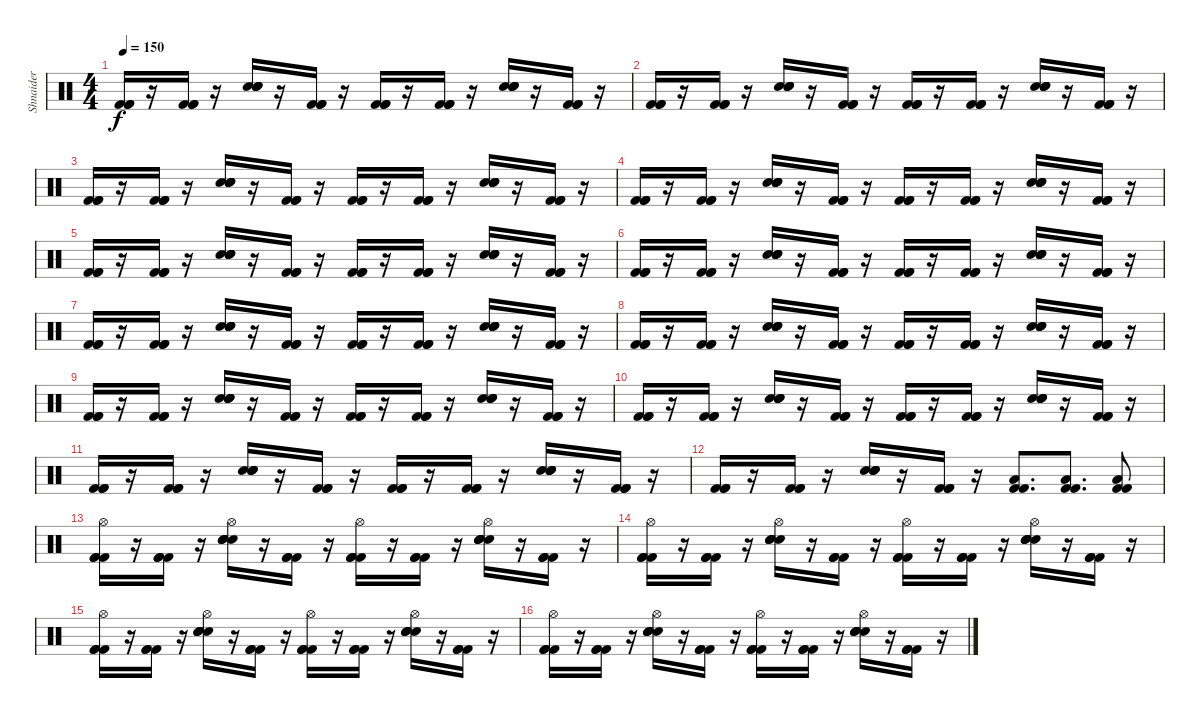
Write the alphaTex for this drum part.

\track ("Shnaider" "Shnaider") {instrument percussion}
\staff {score}
\articulation defaults
\ts (4 4)
\tempo 150
\clef neutral
\ks c
("Kick (hit) 2" "Kick (hit) 2" "Kick (hit) 2").16{dy f} r.16 ("Kick (hit) 2" "Kick (hit) 2" "Kick (hit) 2").16 r.16 ("Electric Snare (hit)" "Electric Snare (hit)" "Electric Snare (hit)" "Electric Snare (hit)").16 r.16 ("Kick (hit) 2" "Kick (hit) 2" "Kick (hit) 2").16 r.16 ("Kick (hit) 2" "Kick (hit) 2" "Kick (hit) 2").16 r.16 ("Kick (hit) 2" "Kick (hit) 2" "Kick (hit) 2").16 r.16 ("Electric Snare (hit)" "Electric Snare (hit)" "Electric Snare (hit)" "Electric Snare (hit)").16 r.16 ("Kick (hit) 2" "Kick (hit) 2" "Kick (hit) 2").16 r.16 |
("Kick (hit) 2" "Kick (hit) 2" "Kick (hit) 2").16 r.16 ("Kick (hit) 2" "Kick (hit) 2" "Kick (hit) 2").16 r.16 ("Electric Snare (hit)" "Electric Snare (hit)" "Electric Snare (hit)" "Electric Snare (hit)").16 r.16 ("Kick (hit) 2" "Kick (hit) 2" "Kick (hit) 2").16 r.16 ("Kick (hit) 2" "Kick (hit) 2" "Kick (hit) 2").16 r.16 ("Kick (hit) 2" "Kick (hit) 2" "Kick (hit) 2").16 r.16 ("Electric Snare (hit)" "Electric Snare (hit)" "Electric Snare (hit)" "Electric Snare (hit)").16 r.16 ("Kick (hit) 2" "Kick (hit) 2" "Kick (hit) 2").16 r.16 |
("Kick (hit) 2" "Kick (hit) 2" "Kick (hit) 2").16 r.16 ("Kick (hit) 2" "Kick (hit) 2" "Kick (hit) 2").16 r.16 ("Electric Snare (hit)" "Electric Snare (hit)" "Electric Snare (hit)" "Electric Snare (hit)").16 r.16 ("Kick (hit) 2" "Kick (hit) 2" "Kick (hit) 2").16 r.16 ("Kick (hit) 2" "Kick (hit) 2" "Kick (hit) 2").16 r.16 ("Kick (hit) 2" "Kick (hit) 2" "Kick (hit) 2").16 r.16 ("Electric Snare (hit)" "Electric Snare (hit)" "Electric Snare (hit)" "Electric Snare (hit)").16 r.16 ("Kick (hit) 2" "Kick (hit) 2" "Kick (hit) 2").16 r.16 |
("Kick (hit) 2" "Kick (hit) 2" "Kick (hit) 2").16 r.16 ("Kick (hit) 2" "Kick (hit) 2" "Kick (hit) 2").16 r.16 ("Electric Snare (hit)" "Electric Snare (hit)" "Electric Snare (hit)" "Electric Snare (hit)").16 r.16 ("Kick (hit) 2" "Kick (hit) 2" "Kick (hit) 2").16 r.16 ("Kick (hit) 2" "Kick (hit) 2" "Kick (hit) 2").16 r.16 ("Kick (hit) 2" "Kick (hit) 2" "Kick (hit) 2").16 r.16 ("Electric Snare (hit)" "Electric Snare (hit)" "Electric Snare (hit)" "Electric Snare (hit)").16 r.16 ("Kick (hit) 2" "Kick (hit) 2" "Kick (hit) 2").16 r.16 |
("Kick (hit) 2" "Kick (hit) 2" "Kick (hit) 2").16 r.16 ("Kick (hit) 2" "Kick (hit) 2" "Kick (hit) 2").16 r.16 ("Electric Snare (hit)" "Electric Snare (hit)" "Electric Snare (hit)" "Electric Snare (hit)").16 r.16 ("Kick (hit) 2" "Kick (hit) 2" "Kick (hit) 2").16 r.16 ("Kick (hit) 2" "Kick (hit) 2" "Kick (hit) 2").16 r.16 ("Kick (hit) 2" "Kick (hit) 2" "Kick (hit) 2").16 r.16 ("Electric Snare (hit)" "Electric Snare (hit)" "Electric Snare (hit)" "Electric Snare (hit)").16 r.16 ("Kick (hit) 2" "Kick (hit) 2" "Kick (hit) 2").16 r.16 |
("Kick (hit) 2" "Kick (hit) 2" "Kick (hit) 2").16 r.16 ("Kick (hit) 2" "Kick (hit) 2" "Kick (hit) 2").16 r.16 ("Electric Snare (hit)" "Electric Snare (hit)" "Electric Snare (hit)" "Electric Snare (hit)").16 r.16 ("Kick (hit) 2" "Kick (hit) 2" "Kick (hit) 2").16 r.16 ("Kick (hit) 2" "Kick (hit) 2" "Kick (hit) 2").16 r.16 ("Kick (hit) 2" "Kick (hit) 2" "Kick (hit) 2").16 r.16 ("Electric Snare (hit)" "Electric Snare (hit)" "Electric Snare (hit)" "Electric Snare (hit)").16 r.16 ("Kick (hit) 2" "Kick (hit) 2" "Kick (hit) 2").16 r.16 |
("Kick (hit) 2" "Kick (hit) 2" "Kick (hit) 2").16 r.16 ("Kick (hit) 2" "Kick (hit) 2" "Kick (hit) 2").16 r.16 ("Electric Snare (hit)" "Electric Snare (hit)" "Electric Snare (hit)" "Electric Snare (hit)").16 r.16 ("Kick (hit) 2" "Kick (hit) 2" "Kick (hit) 2").16 r.16 ("Kick (hit) 2" "Kick (hit) 2" "Kick (hit) 2").16 r.16 ("Kick (hit) 2" "Kick (hit) 2" "Kick (hit) 2").16 r.16 ("Electric Snare (hit)" "Electric Snare (hit)" "Electric Snare (hit)" "Electric Snare (hit)").16 r.16 ("Kick (hit) 2" "Kick (hit) 2" "Kick (hit) 2").16 r.16 |
("Kick (hit) 2" "Kick (hit) 2" "Kick (hit) 2").16 r.16 ("Kick (hit) 2" "Kick (hit) 2" "Kick (hit) 2").16 r.16 ("Electric Snare (hit)" "Electric Snare (hit)" "Electric Snare (hit)" "Electric Snare (hit)").16 r.16 ("Kick (hit) 2" "Kick (hit) 2" "Kick (hit) 2").16 r.16 ("Kick (hit) 2" "Kick (hit) 2" "Kick (hit) 2").16 r.16 ("Kick (hit) 2" "Kick (hit) 2" "Kick (hit) 2").16 r.16 ("Electric Snare (hit)" "Electric Snare (hit)" "Electric Snare (hit)" "Electric Snare (hit)").16 r.16 ("Kick (hit) 2" "Kick (hit) 2" "Kick (hit) 2").16 r.16 |
("Kick (hit) 2" "Kick (hit) 2" "Kick (hit) 2").16 r.16 ("Kick (hit) 2" "Kick (hit) 2" "Kick (hit) 2").16 r.16 ("Electric Snare (hit)" "Electric Snare (hit)" "Electric Snare (hit)" "Electric Snare (hit)").16 r.16 ("Kick (hit) 2" "Kick (hit) 2" "Kick (hit) 2").16 r.16 ("Kick (hit) 2" "Kick (hit) 2" "Kick (hit) 2").16 r.16 ("Kick (hit) 2" "Kick (hit) 2" "Kick (hit) 2").16 r.16 ("Electric Snare (hit)" "Electric Snare (hit)" "Electric Snare (hit)" "Electric Snare (hit)").16 r.16 ("Kick (hit) 2" "Kick (hit) 2" "Kick (hit) 2").16 r.16 |
("Kick (hit) 2" "Kick (hit) 2" "Kick (hit) 2").16 r.16 ("Kick (hit) 2" "Kick (hit) 2" "Kick (hit) 2").16 r.16 ("Electric Snare (hit)" "Electric Snare (hit)" "Electric Snare (hit)" "Electric Snare (hit)").16 r.16 ("Kick (hit) 2" "Kick (hit) 2" "Kick (hit) 2").16 r.16 ("Kick (hit) 2" "Kick (hit) 2" "Kick (hit) 2").16 r.16 ("Kick (hit) 2" "Kick (hit) 2" "Kick (hit) 2").16 r.16 ("Electric Snare (hit)" "Electric Snare (hit)" "Electric Snare (hit)" "Electric Snare (hit)").16 r.16 ("Kick (hit) 2" "Kick (hit) 2" "Kick (hit) 2").16 r.16 |
("Kick (hit) 2" "Kick (hit) 2" "Kick (hit) 2").16 r.16 ("Kick (hit) 2" "Kick (hit) 2" "Kick (hit) 2").16 r.16 ("Electric Snare (hit)" "Electric Snare (hit)" "Electric Snare (hit)" "Electric Snare (hit)").16 r.16 ("Kick (hit) 2" "Kick (hit) 2" "Kick (hit) 2").16 r.16 ("Kick (hit) 2" "Kick (hit) 2" "Kick (hit) 2").16 r.16 ("Kick (hit) 2" "Kick (hit) 2" "Kick (hit) 2").16 r.16 ("Electric Snare (hit)" "Electric Snare (hit)" "Electric Snare (hit)" "Electric Snare (hit)").16 r.16 ("Kick (hit) 2" "Kick (hit) 2" "Kick (hit) 2").16 r.16 |
("Kick (hit) 2" "Kick (hit) 2" "Kick (hit) 2").16 r.16 ("Kick (hit) 2" "Kick (hit) 2" "Kick (hit) 2").16 r.16 ("Electric Snare (hit)" "Electric Snare (hit)" "Electric Snare (hit)" "Electric Snare (hit)").16 r.16 ("Kick (hit) 2" "Kick (hit) 2" "Kick (hit) 2").16 r.16 ("Kick (hit) 2" "Kick (hit) 2" "Low Floor Tom (hit)").8{d} ("Kick (hit) 2" "Kick (hit) 2" "Low Floor Tom (hit)").8{d} ("Kick (hit) 2" "Kick (hit) 2" "Low Floor Tom (hit)").8 |
("Kick (hit) 2" "Kick (hit) 2" "Kick (hit) 2" "Hi-Hat (open)").16 r.16 ("Kick (hit) 2" "Kick (hit) 2" "Kick (hit) 2").16 r.16 ("Electric Snare (hit)" "Electric Snare (hit)" "Electric Snare (hit)" "Electric Snare (hit)" "Hi-Hat (open)").16 r.16 ("Kick (hit) 2" "Kick (hit) 2" "Kick (hit) 2").16 r.16 ("Kick (hit) 2" "Kick (hit) 2" "Kick (hit) 2" "Hi-Hat (open)").16 r.16 ("Kick (hit) 2" "Kick (hit) 2" "Kick (hit) 2").16 r.16 ("Electric Snare (hit)" "Electric Snare (hit)" "Electric Snare (hit)" "Electric Snare (hit)" "Hi-Hat (open)").16 r.16 ("Kick (hit) 2" "Kick (hit) 2" "Kick (hit) 2").16 r.16 |
("Kick (hit) 2" "Kick (hit) 2" "Kick (hit) 2" "Hi-Hat (open)").16 r.16 ("Kick (hit) 2" "Kick (hit) 2" "Kick (hit) 2").16 r.16 ("Electric Snare (hit)" "Electric Snare (hit)" "Electric Snare (hit)" "Electric Snare (hit)" "Hi-Hat (open)").16 r.16 ("Kick (hit) 2" "Kick (hit) 2" "Kick (hit) 2").16 r.16 ("Kick (hit) 2" "Kick (hit) 2" "Kick (hit) 2" "Hi-Hat (open)").16 r.16 ("Kick (hit) 2" "Kick (hit) 2" "Kick (hit) 2").16 r.16 ("Electric Snare (hit)" "Electric Snare (hit)" "Electric Snare (hit)" "Electric Snare (hit)" "Hi-Hat (open)").16 r.16 ("Kick (hit) 2" "Kick (hit) 2" "Kick (hit) 2").16 r.16 |
("Kick (hit) 2" "Kick (hit) 2" "Kick (hit) 2" "Hi-Hat (open)").16 r.16 ("Kick (hit) 2" "Kick (hit) 2" "Kick (hit) 2").16 r.16 ("Electric Snare (hit)" "Electric Snare (hit)" "Electric Snare (hit)" "Electric Snare (hit)" "Hi-Hat (open)").16 r.16 ("Kick (hit) 2" "Kick (hit) 2" "Kick (hit) 2").16 r.16 ("Kick (hit) 2" "Kick (hit) 2" "Kick (hit) 2" "Hi-Hat (open)").16 r.16 ("Kick (hit) 2" "Kick (hit) 2" "Kick (hit) 2").16 r.16 ("Electric Snare (hit)" "Electric Snare (hit)" "Electric Snare (hit)" "Electric Snare (hit)" "Hi-Hat (open)").16 r.16 ("Kick (hit) 2" "Kick (hit) 2" "Kick (hit) 2").16 r.16 |
("Kick (hit) 2" "Kick (hit) 2" "Kick (hit) 2" "Hi-Hat (open)").16 r.16 ("Kick (hit) 2" "Kick (hit) 2" "Kick (hit) 2").16 r.16 ("Electric Snare (hit)" "Electric Snare (hit)" "Electric Snare (hit)" "Electric Snare (hit)" "Hi-Hat (open)").16 r.16 ("Kick (hit) 2" "Kick (hit) 2" "Kick (hit) 2").16 r.16 ("Kick (hit) 2" "Kick (hit) 2" "Kick (hit) 2" "Hi-Hat (open)").16 r.16 ("Kick (hit) 2" "Kick (hit) 2" "Kick (hit) 2").16 r.16 ("Electric Snare (hit)" "Electric Snare (hit)" "Electric Snare (hit)" "Electric Snare (hit)" "Hi-Hat (open)").16 r.16 ("Kick (hit) 2" "Kick (hit) 2" "Kick (hit) 2").16 r.16
